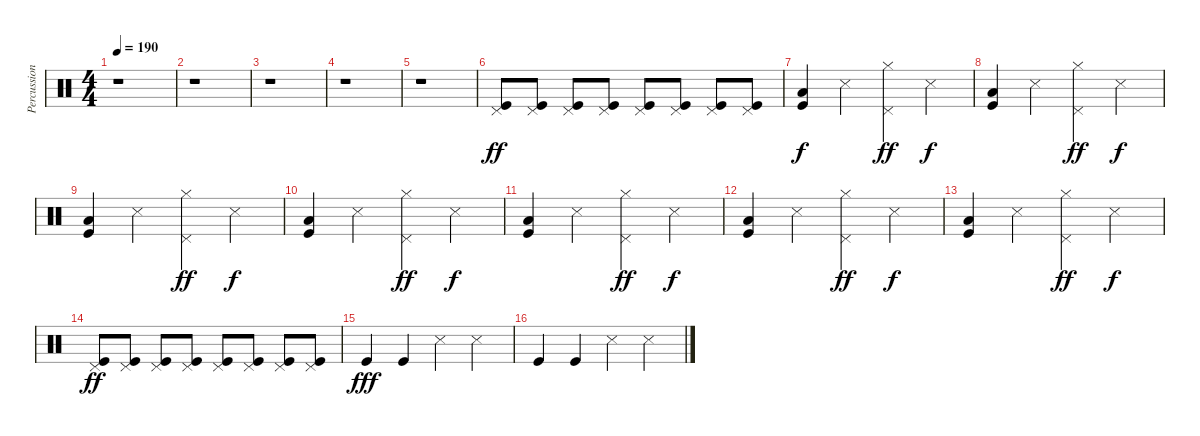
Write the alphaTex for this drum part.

\track ("Percussion" "Percussion") {instrument percussion}
\staff {score}
\articulation defaults
\ts (4 4)
\tempo 190
\clef neutral
\ks c
r.1{dy ff} |
r.1 |
r.1 |
r.1 |
r.1 |
("Pedal Hi-Hat (hit)" "Kick (hit)").8 ("Pedal Hi-Hat (hit)" "Kick (hit)").8 ("Pedal Hi-Hat (hit)" "Kick (hit)").8 ("Pedal Hi-Hat (hit)" "Kick (hit)").8 ("Pedal Hi-Hat (hit)" "Kick (hit)").8 ("Pedal Hi-Hat (hit)" "Kick (hit)").8 ("Pedal Hi-Hat (hit)" "Kick (hit)").8 ("Pedal Hi-Hat (hit)" "Kick (hit)").8 |
("Low Floor Tom (hit)" "Kick (hit)").4{dy f} "Snare (side stick) 3".4 ("Hi-Hat (closed)" "Pedal Hi-Hat (hit)").4{dy ff} "Snare (side stick) 3".4{dy f} |
("Low Floor Tom (hit)" "Kick (hit)").4 "Snare (side stick) 3".4 ("Hi-Hat (closed)" "Pedal Hi-Hat (hit)").4{dy ff} "Snare (side stick) 3".4{dy f} |
("Low Floor Tom (hit)" "Kick (hit)").4 "Snare (side stick) 3".4 ("Hi-Hat (closed)" "Pedal Hi-Hat (hit)").4{dy ff} "Snare (side stick) 3".4{dy f} |
("Low Floor Tom (hit)" "Kick (hit)").4 "Snare (side stick) 3".4 ("Hi-Hat (closed)" "Pedal Hi-Hat (hit)").4{dy ff} "Snare (side stick) 3".4{dy f} |
("Low Floor Tom (hit)" "Kick (hit)").4 "Snare (side stick) 3".4 ("Hi-Hat (closed)" "Pedal Hi-Hat (hit)").4{dy ff} "Snare (side stick) 3".4{dy f} |
("Low Floor Tom (hit)" "Kick (hit)").4 "Snare (side stick) 3".4 ("Hi-Hat (closed)" "Pedal Hi-Hat (hit)").4{dy ff} "Snare (side stick) 3".4{dy f} |
("Low Floor Tom (hit)" "Kick (hit)").4 "Snare (side stick) 3".4 ("Hi-Hat (closed)" "Pedal Hi-Hat (hit)").4{dy ff} "Snare (side stick) 3".4{dy f} |
("Pedal Hi-Hat (hit)" "Kick (hit)").8{dy ff} ("Pedal Hi-Hat (hit)" "Kick (hit)").8 ("Pedal Hi-Hat (hit)" "Kick (hit)").8 ("Pedal Hi-Hat (hit)" "Kick (hit)").8 ("Pedal Hi-Hat (hit)" "Kick (hit)").8 ("Pedal Hi-Hat (hit)" "Kick (hit)").8 ("Pedal Hi-Hat (hit)" "Kick (hit)").8 ("Pedal Hi-Hat (hit)" "Kick (hit)").8 |
"Kick (hit)".4{dy fff} "Kick (hit)".4 "Snare (side stick) 3".4 "Snare (side stick) 3".4 |
"Kick (hit)".4 "Kick (hit)".4 "Snare (side stick) 3".4 "Snare (side stick) 3".4
